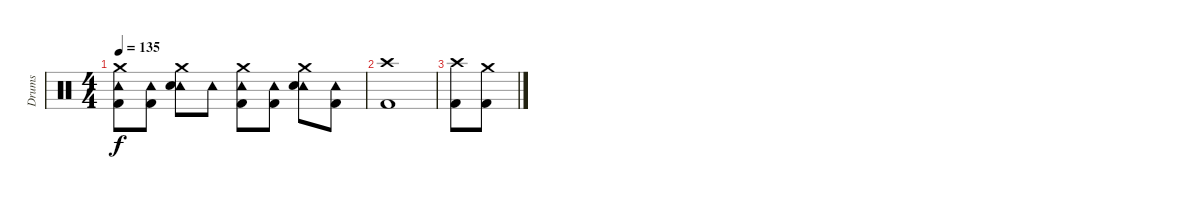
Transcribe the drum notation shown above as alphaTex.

\track ("Drums" "Drums") {solo instrument percussion bank 34}
\staff {score}
\articulation defaults
\ts (4 4)
\tempo 135
\clef neutral
\ks c
("Crash medium (hit)" "Tambourine (hit)" "Kick (hit) 2").8{dy f} ("Tambourine (hit)" "Kick (hit) 2").8 ("Crash medium (hit)" "Tambourine (hit)" "Electric Snare (hit)").8 "Tambourine (hit)".8 ("Crash medium (hit)" "Tambourine (hit)" "Kick (hit) 2").8 ("Tambourine (hit)" "Kick (hit) 2").8 ("Crash medium (hit)" "Tambourine (hit)" "Electric Snare (hit)").8 ("Tambourine (hit)" "Kick (hit) 2").8 |
("Crash high (hit)" "Kick (hit) 2").1 |
("Crash high (hit)" "Kick (hit) 2").8 ("Crash medium (hit)" "Kick (hit) 2").8
